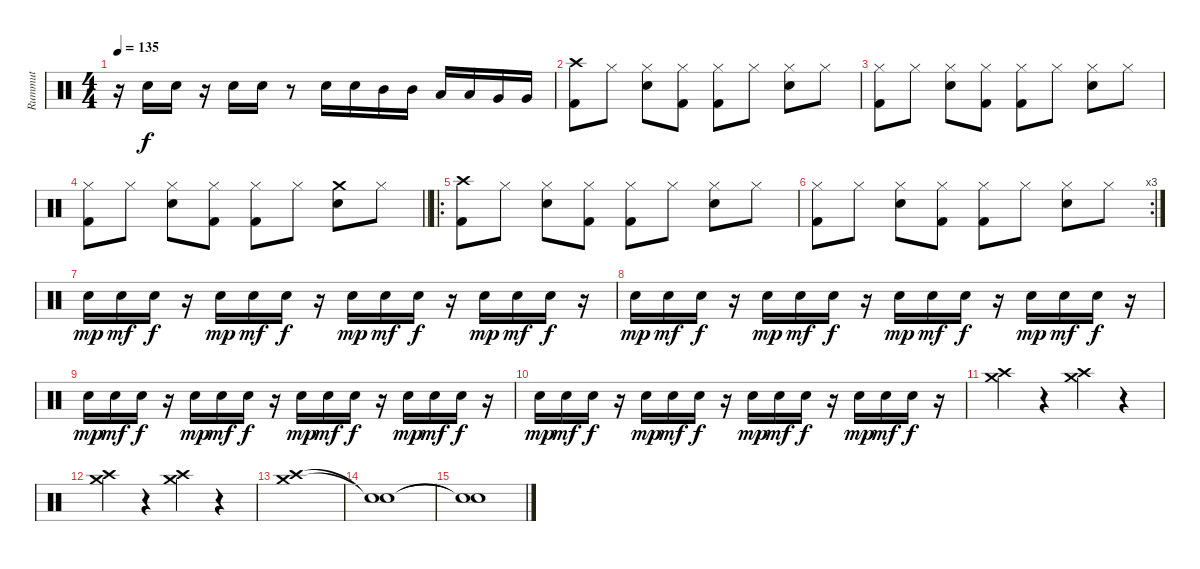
\track ("Rummut" "Rummut") {instrument percussion}
\staff {score}
\articulation defaults
\ts (4 4)
\tempo 135
\clef neutral
\ks c
r.16{dy f} "Electric Snare (hit)".16 "Electric Snare (hit)".16 r.16 "Electric Snare (hit)".16 "Electric Snare (hit)".16 r.8 "Electric Snare (hit)".16 "Electric Snare (hit)".16 "Mid Tom (hit)".16 "Mid Tom (hit)".16 "Low Tom (hit)".16 "Low Tom (hit)".16 "Very Low Tom (hit)".16 "Very Low Tom (hit)".16 |
("Crash high (hit)" "Kick (hit) 2").8 "Hi-Hat (closed)".8 ("Hi-Hat (closed)" "Electric Snare (hit)").8 ("Hi-Hat (closed)" "Kick (hit) 2").8 ("Hi-Hat (closed)" "Kick (hit) 2").8 "Hi-Hat (closed)".8 ("Hi-Hat (closed)" "Electric Snare (hit)").8 "Hi-Hat (closed)".8 |
("Hi-Hat (closed)" "Kick (hit) 2").8 "Hi-Hat (closed)".8 ("Hi-Hat (closed)" "Electric Snare (hit)").8 ("Hi-Hat (closed)" "Kick (hit) 2").8 ("Hi-Hat (closed)" "Kick (hit) 2").8 "Hi-Hat (closed)".8 ("Hi-Hat (closed)" "Electric Snare (hit)").8 "Hi-Hat (closed)".8 |
\barLineRight lightlight
("Hi-Hat (closed)" "Kick (hit) 2").8 "Hi-Hat (closed)".8 ("Hi-Hat (closed)" "Electric Snare (hit)").8 ("Hi-Hat (closed)" "Kick (hit) 2").8 ("Hi-Hat (closed)" "Kick (hit) 2").8 "Hi-Hat (closed)".8 ("Crash medium (hit)" "Electric Snare (hit)").8 "Hi-Hat (closed)".8 |
\ro
("Crash high (hit)" "Kick (hit) 2").8 "Hi-Hat (closed)".8 ("Hi-Hat (closed)" "Electric Snare (hit)").8 ("Hi-Hat (closed)" "Kick (hit) 2").8 ("Hi-Hat (closed)" "Kick (hit) 2").8 "Hi-Hat (closed)".8 ("Hi-Hat (closed)" "Electric Snare (hit)").8 "Hi-Hat (closed)".8 |
\rc 3
("Hi-Hat (closed)" "Kick (hit) 2").8 "Hi-Hat (closed)".8 ("Hi-Hat (closed)" "Electric Snare (hit)").8 ("Hi-Hat (closed)" "Kick (hit) 2").8 ("Hi-Hat (closed)" "Kick (hit) 2").8 "Hi-Hat (closed)".8 ("Hi-Hat (closed)" "Electric Snare (hit)").8 "Hi-Hat (closed)".8 |
"Electric Snare (hit)".16{dy mp} "Electric Snare (hit)".16{dy mf} "Electric Snare (hit)".16{dy f} r.16 "Electric Snare (hit)".16{dy mp} "Electric Snare (hit)".16{dy mf} "Electric Snare (hit)".16{dy f} r.16 "Electric Snare (hit)".16{dy mp} "Electric Snare (hit)".16{dy mf} "Electric Snare (hit)".16{dy f} r.16 "Electric Snare (hit)".16{dy mp} "Electric Snare (hit)".16{dy mf} "Electric Snare (hit)".16{dy f} r.16 |
"Electric Snare (hit)".16{dy mp} "Electric Snare (hit)".16{dy mf} "Electric Snare (hit)".16{dy f} r.16 "Electric Snare (hit)".16{dy mp} "Electric Snare (hit)".16{dy mf} "Electric Snare (hit)".16{dy f} r.16 "Electric Snare (hit)".16{dy mp} "Electric Snare (hit)".16{dy mf} "Electric Snare (hit)".16{dy f} r.16 "Electric Snare (hit)".16{dy mp} "Electric Snare (hit)".16{dy mf} "Electric Snare (hit)".16{dy f} r.16 |
"Electric Snare (hit)".16{dy mp} "Electric Snare (hit)".16{dy mf} "Electric Snare (hit)".16{dy f} r.16 "Electric Snare (hit)".16{dy mp} "Electric Snare (hit)".16{dy mf} "Electric Snare (hit)".16{dy f} r.16 "Electric Snare (hit)".16{dy mp} "Electric Snare (hit)".16{dy mf} "Electric Snare (hit)".16{dy f} r.16 "Electric Snare (hit)".16{dy mp} "Electric Snare (hit)".16{dy mf} "Electric Snare (hit)".16{dy f} r.16 |
"Electric Snare (hit)".16{dy mp} "Electric Snare (hit)".16{dy mf} "Electric Snare (hit)".16{dy f} r.16 "Electric Snare (hit)".16{dy mp} "Electric Snare (hit)".16{dy mf} "Electric Snare (hit)".16{dy f} r.16 "Electric Snare (hit)".16{dy mp} "Electric Snare (hit)".16{dy mf} "Electric Snare (hit)".16{dy f} r.16 "Electric Snare (hit)".16{dy mp} "Electric Snare (hit)".16{dy mf} "Electric Snare (hit)".16{dy f} r.16 |
("Crash high (hit)" "Crash medium (hit)").4 r.4 ("Crash high (hit)" "Crash medium (hit)").4 r.4 |
("Crash high (hit)" "Crash medium (hit)").4 r.4 ("Crash high (hit)" "Crash medium (hit)").4 r.4 |
("Crash high (hit)" "Crash medium (hit)").1 |
("Snare (hit)"{t} "Snare (hit)"{t}).1 |
("Snare (hit)"{t} "Snare (hit)"{t}).1
